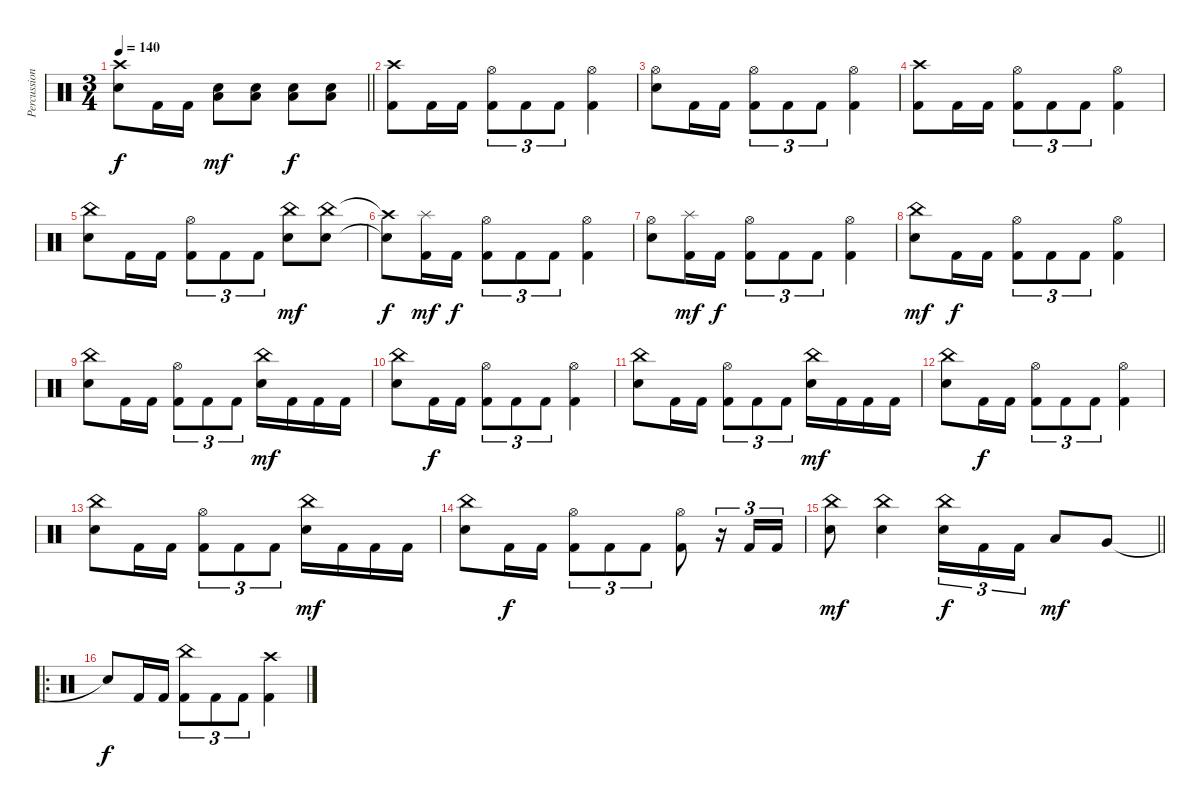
\track ("Percussions" "Percussion") {instrument percussion}
\staff {score}
\articulation defaults
\ts (3 4)
\tempo 140
\clef neutral
\barLineRight lightlight
\ks c
("Crash high (hit)" "Electric Snare (hit)").8{dy f} "Kick (hit) 2".16 "Kick (hit) 2".16 ("Low Floor Tom (hit)" "Electric Snare (hit)").8{dy mf} ("Low Floor Tom (hit)" "Electric Snare (hit)").8 ("Low Floor Tom (hit)" "Electric Snare (hit)").8{dy f} ("Low Floor Tom (hit)" "Electric Snare (hit)").8 |
\section ("" "")
("Crash high (hit)" "Kick (hit) 2").8 "Kick (hit) 2".16 "Kick (hit) 2".16 ("Hi-Hat (open)" "Kick (hit) 2").8{tu (3 2)} "Kick (hit) 2".8{tu (3 2)} "Kick (hit) 2".8{tu (3 2)} ("Hi-Hat (open)" "Kick (hit) 2").4 |
("Hi-Hat (open)" "Electric Snare (hit)").8 "Kick (hit) 2".16 "Kick (hit) 2".16 ("Hi-Hat (open)" "Kick (hit) 2").8{tu (3 2)} "Kick (hit) 2".8{tu (3 2)} "Kick (hit) 2".8{tu (3 2)} ("Hi-Hat (open)" "Kick (hit) 2").4 |
("Crash high (hit)" "Kick (hit) 2").8 "Kick (hit) 2".16 "Kick (hit) 2".16 ("Hi-Hat (open)" "Kick (hit) 2").8{tu (3 2)} "Kick (hit) 2".8{tu (3 2)} "Kick (hit) 2".8{tu (3 2)} ("Hi-Hat (open)" "Kick (hit) 2").4 |
("China (hit)" "Electric Snare (hit)").8 "Kick (hit) 2".16 "Kick (hit) 2".16 ("Hi-Hat (open)" "Kick (hit) 2").8{tu (3 2)} "Kick (hit) 2".8{tu (3 2)} "Kick (hit) 2".8{tu (3 2)} ("China (hit)" "Electric Snare (hit)").8{dy mf} ("China (hit)" "Electric Snare (hit)").8 |
("Crash high (hit)"{t} "Snare (hit)"{t}).8{dy f} ("Splash (hit)" "Kick (hit) 2").16{dy mf} "Kick (hit) 2".16{dy f} ("Hi-Hat (open)" "Kick (hit) 2").8{tu (3 2)} "Kick (hit) 2".8{tu (3 2)} "Kick (hit) 2".8{tu (3 2)} ("Hi-Hat (open)" "Kick (hit) 2").4 |
("Hi-Hat (open)" "Electric Snare (hit)").8 ("Splash (hit)" "Kick (hit) 2").16{dy mf} "Kick (hit) 2".16{dy f} ("Hi-Hat (open)" "Kick (hit) 2").8{tu (3 2)} "Kick (hit) 2".8{tu (3 2)} "Kick (hit) 2".8{tu (3 2)} ("Hi-Hat (open)" "Kick (hit) 2").4 |
("China (hit)" "Electric Snare (hit)").8{dy mf} "Kick (hit) 2".16{dy f} "Kick (hit) 2".16 ("Hi-Hat (open)" "Kick (hit) 2").8{tu (3 2)} "Kick (hit) 2".8{tu (3 2)} "Kick (hit) 2".8{tu (3 2)} ("Hi-Hat (open)" "Kick (hit) 2").4 |
("China (hit)" "Electric Snare (hit)").8 "Kick (hit) 2".16 "Kick (hit) 2".16 ("Hi-Hat (open)" "Kick (hit) 2").8{tu (3 2)} "Kick (hit) 2".8{tu (3 2)} "Kick (hit) 2".8{tu (3 2)} ("China (hit)" "Electric Snare (hit)").16{dy mf} "Kick (hit) 2".16 "Kick (hit) 2".16 "Kick (hit) 2".16 |
("China (hit)" "Electric Snare (hit)").8 "Kick (hit) 2".16{dy f} "Kick (hit) 2".16 ("Hi-Hat (open)" "Kick (hit) 2").8{tu (3 2)} "Kick (hit) 2".8{tu (3 2)} "Kick (hit) 2".8{tu (3 2)} ("Hi-Hat (open)" "Kick (hit) 2").4 |
("China (hit)" "Electric Snare (hit)").8 "Kick (hit) 2".16 "Kick (hit) 2".16 ("Hi-Hat (open)" "Kick (hit) 2").8{tu (3 2)} "Kick (hit) 2".8{tu (3 2)} "Kick (hit) 2".8{tu (3 2)} ("China (hit)" "Electric Snare (hit)").16{dy mf} "Kick (hit) 2".16 "Kick (hit) 2".16 "Kick (hit) 2".16 |
("China (hit)" "Electric Snare (hit)").8 "Kick (hit) 2".16{dy f} "Kick (hit) 2".16 ("Hi-Hat (open)" "Kick (hit) 2").8{tu (3 2)} "Kick (hit) 2".8{tu (3 2)} "Kick (hit) 2".8{tu (3 2)} ("Hi-Hat (open)" "Kick (hit) 2").4 |
("China (hit)" "Electric Snare (hit)").8 "Kick (hit) 2".16 "Kick (hit) 2".16 ("Hi-Hat (open)" "Kick (hit) 2").8{tu (3 2)} "Kick (hit) 2".8{tu (3 2)} "Kick (hit) 2".8{tu (3 2)} ("China (hit)" "Electric Snare (hit)").16{dy mf} "Kick (hit) 2".16 "Kick (hit) 2".16 "Kick (hit) 2".16 |
("China (hit)" "Electric Snare (hit)").8 "Kick (hit) 2".16{dy f} "Kick (hit) 2".16 ("Hi-Hat (open)" "Kick (hit) 2").8{tu (3 2)} "Kick (hit) 2".8{tu (3 2)} "Kick (hit) 2".8{tu (3 2)} ("Hi-Hat (open)" "Kick (hit) 2").8 r.16{tu (3 2)} "Kick (hit) 2".16{tu (3 2)} "Kick (hit) 2".16{tu (3 2)} |
\barLineRight lightlight
("China (hit)" "Electric Snare (hit)").8{dy mf} ("China (hit)" "Electric Snare (hit)").4 ("China (hit)" "Electric Snare (hit)").16{tu (3 2) dy f} "Kick (hit) 2".16{tu (3 2)} "Kick (hit) 2".16{tu (3 2)} "Low Tom (hit)".8{dy mf} "Very Low Tom (hit)".8 |
\ro "Snare (hit)"{t}.8{dy f} "Kick (hit) 2".16 "Kick (hit) 2".16
("China (hit)" "Kick (hit) 2").8{tu (3 2)} "Kick (hit) 2".8{tu (3 2)} "Kick (hit) 2".8{tu (3 2)} ("Crash high (hit)" "Kick (hit) 2").4
